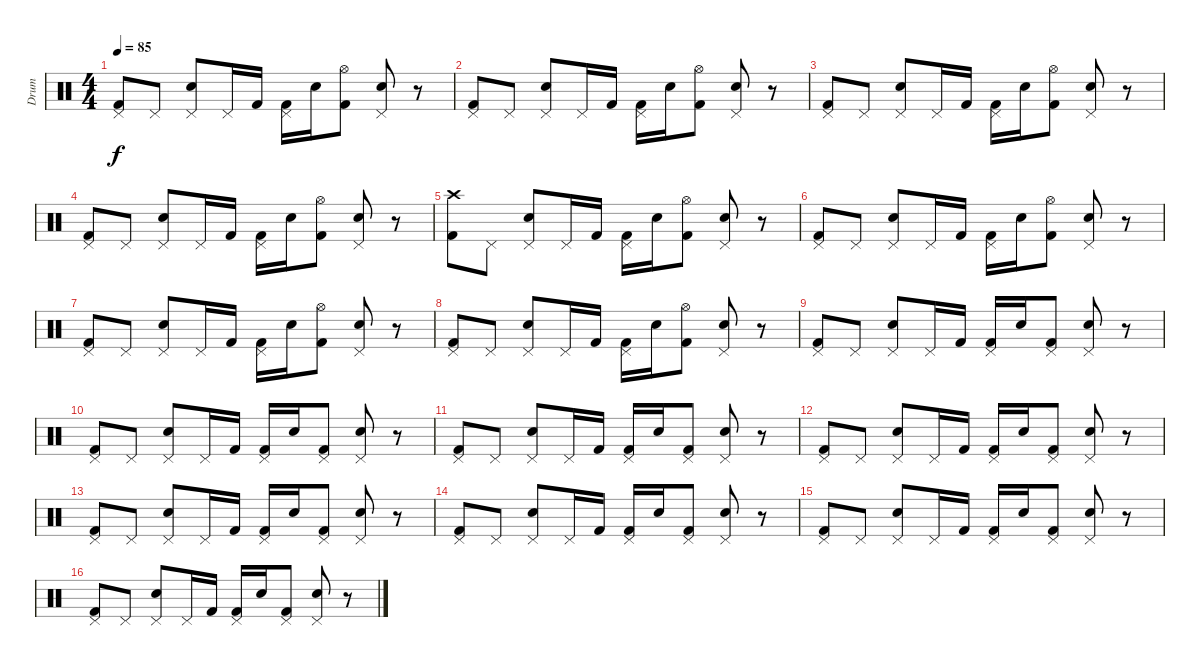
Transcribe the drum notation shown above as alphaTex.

\track ("Drum" "Drum") {instrument percussion}
\staff {score}
\articulation defaults
\ts (4 4)
\tempo 85
\clef neutral
\ks c
("Pedal Hi-Hat (hit)" "Kick (hit) 2").8{dy f} "Pedal Hi-Hat (hit)".8 ("Pedal Hi-Hat (hit)" "Electric Snare (hit)").8 "Pedal Hi-Hat (hit)".16 "Kick (hit) 2".16 ("Pedal Hi-Hat (hit)" "Kick (hit) 2").16 "Electric Snare (hit)".16 ("Hi-Hat (open)" "Kick (hit) 2").8 ("Pedal Hi-Hat (hit)" "Electric Snare (hit)").8 r.8 |
("Pedal Hi-Hat (hit)" "Kick (hit) 2").8 "Pedal Hi-Hat (hit)".8 ("Pedal Hi-Hat (hit)" "Electric Snare (hit)").8 "Pedal Hi-Hat (hit)".16 "Kick (hit) 2".16 ("Pedal Hi-Hat (hit)" "Kick (hit) 2").16 "Electric Snare (hit)".16 ("Hi-Hat (open)" "Kick (hit) 2").8 ("Pedal Hi-Hat (hit)" "Electric Snare (hit)").8 r.8 |
("Pedal Hi-Hat (hit)" "Kick (hit) 2").8 "Pedal Hi-Hat (hit)".8 ("Pedal Hi-Hat (hit)" "Electric Snare (hit)").8 "Pedal Hi-Hat (hit)".16 "Kick (hit) 2".16 ("Pedal Hi-Hat (hit)" "Kick (hit) 2").16 "Electric Snare (hit)".16 ("Hi-Hat (open)" "Kick (hit) 2").8 ("Pedal Hi-Hat (hit)" "Electric Snare (hit)").8 r.8 |
("Pedal Hi-Hat (hit)" "Kick (hit) 2").8 "Pedal Hi-Hat (hit)".8 ("Pedal Hi-Hat (hit)" "Electric Snare (hit)").8 "Pedal Hi-Hat (hit)".16 "Kick (hit) 2".16 ("Pedal Hi-Hat (hit)" "Kick (hit) 2").16 "Electric Snare (hit)".16 ("Hi-Hat (open)" "Kick (hit) 2").8 ("Pedal Hi-Hat (hit)" "Electric Snare (hit)").8 r.8 |
("Crash high (hit)" "Kick (hit) 2").8 "Pedal Hi-Hat (hit)".8 ("Pedal Hi-Hat (hit)" "Electric Snare (hit)").8 "Pedal Hi-Hat (hit)".16 "Kick (hit) 2".16 ("Pedal Hi-Hat (hit)" "Kick (hit) 2").16 "Electric Snare (hit)".16 ("Hi-Hat (open)" "Kick (hit) 2").8 ("Pedal Hi-Hat (hit)" "Electric Snare (hit)").8 r.8 |
("Pedal Hi-Hat (hit)" "Kick (hit) 2").8 "Pedal Hi-Hat (hit)".8 ("Pedal Hi-Hat (hit)" "Electric Snare (hit)").8 "Pedal Hi-Hat (hit)".16 "Kick (hit) 2".16 ("Pedal Hi-Hat (hit)" "Kick (hit) 2").16 "Electric Snare (hit)".16 ("Hi-Hat (open)" "Kick (hit) 2").8 ("Pedal Hi-Hat (hit)" "Electric Snare (hit)").8 r.8 |
("Pedal Hi-Hat (hit)" "Kick (hit) 2").8 "Pedal Hi-Hat (hit)".8 ("Pedal Hi-Hat (hit)" "Electric Snare (hit)").8 "Pedal Hi-Hat (hit)".16 "Kick (hit) 2".16 ("Pedal Hi-Hat (hit)" "Kick (hit) 2").16 "Electric Snare (hit)".16 ("Hi-Hat (open)" "Kick (hit) 2").8 ("Pedal Hi-Hat (hit)" "Electric Snare (hit)").8 r.8 |
("Pedal Hi-Hat (hit)" "Kick (hit) 2").8 "Pedal Hi-Hat (hit)".8 ("Pedal Hi-Hat (hit)" "Electric Snare (hit)").8 "Pedal Hi-Hat (hit)".16 "Kick (hit) 2".16 ("Pedal Hi-Hat (hit)" "Kick (hit) 2").16 "Electric Snare (hit)".16 ("Hi-Hat (open)" "Kick (hit) 2").8 ("Pedal Hi-Hat (hit)" "Electric Snare (hit)").8 r.8 |
("Pedal Hi-Hat (hit)" "Kick (hit) 2").8 "Pedal Hi-Hat (hit)".8 ("Pedal Hi-Hat (hit)" "Electric Snare (hit)").8 "Pedal Hi-Hat (hit)".16 "Kick (hit) 2".16 ("Pedal Hi-Hat (hit)" "Kick (hit) 2").16 "Electric Snare (hit)".16 ("Pedal Hi-Hat (hit)" "Kick (hit) 2").8 ("Pedal Hi-Hat (hit)" "Electric Snare (hit)").8 r.8 |
("Pedal Hi-Hat (hit)" "Kick (hit) 2").8 "Pedal Hi-Hat (hit)".8 ("Pedal Hi-Hat (hit)" "Electric Snare (hit)").8 "Pedal Hi-Hat (hit)".16 "Kick (hit) 2".16 ("Pedal Hi-Hat (hit)" "Kick (hit) 2").16 "Electric Snare (hit)".16 ("Pedal Hi-Hat (hit)" "Kick (hit) 2").8 ("Pedal Hi-Hat (hit)" "Electric Snare (hit)").8 r.8 |
("Pedal Hi-Hat (hit)" "Kick (hit) 2").8 "Pedal Hi-Hat (hit)".8 ("Pedal Hi-Hat (hit)" "Electric Snare (hit)").8 "Pedal Hi-Hat (hit)".16 "Kick (hit) 2".16 ("Pedal Hi-Hat (hit)" "Kick (hit) 2").16 "Electric Snare (hit)".16 ("Pedal Hi-Hat (hit)" "Kick (hit) 2").8 ("Pedal Hi-Hat (hit)" "Electric Snare (hit)").8 r.8 |
("Pedal Hi-Hat (hit)" "Kick (hit) 2").8 "Pedal Hi-Hat (hit)".8 ("Pedal Hi-Hat (hit)" "Electric Snare (hit)").8 "Pedal Hi-Hat (hit)".16 "Kick (hit) 2".16 ("Pedal Hi-Hat (hit)" "Kick (hit) 2").16 "Electric Snare (hit)".16 ("Pedal Hi-Hat (hit)" "Kick (hit) 2").8 ("Pedal Hi-Hat (hit)" "Electric Snare (hit)").8 r.8 |
("Pedal Hi-Hat (hit)" "Kick (hit) 2").8 "Pedal Hi-Hat (hit)".8 ("Pedal Hi-Hat (hit)" "Electric Snare (hit)").8 "Pedal Hi-Hat (hit)".16 "Kick (hit) 2".16 ("Pedal Hi-Hat (hit)" "Kick (hit) 2").16 "Electric Snare (hit)".16 ("Pedal Hi-Hat (hit)" "Kick (hit) 2").8 ("Pedal Hi-Hat (hit)" "Electric Snare (hit)").8 r.8 |
("Pedal Hi-Hat (hit)" "Kick (hit) 2").8 "Pedal Hi-Hat (hit)".8 ("Pedal Hi-Hat (hit)" "Electric Snare (hit)").8 "Pedal Hi-Hat (hit)".16 "Kick (hit) 2".16 ("Pedal Hi-Hat (hit)" "Kick (hit) 2").16 "Electric Snare (hit)".16 ("Pedal Hi-Hat (hit)" "Kick (hit) 2").8 ("Pedal Hi-Hat (hit)" "Electric Snare (hit)").8 r.8 |
("Pedal Hi-Hat (hit)" "Kick (hit) 2").8 "Pedal Hi-Hat (hit)".8 ("Pedal Hi-Hat (hit)" "Electric Snare (hit)").8 "Pedal Hi-Hat (hit)".16 "Kick (hit) 2".16 ("Pedal Hi-Hat (hit)" "Kick (hit) 2").16 "Electric Snare (hit)".16 ("Pedal Hi-Hat (hit)" "Kick (hit) 2").8 ("Pedal Hi-Hat (hit)" "Electric Snare (hit)").8 r.8 |
("Pedal Hi-Hat (hit)" "Kick (hit) 2").8 "Pedal Hi-Hat (hit)".8 ("Pedal Hi-Hat (hit)" "Electric Snare (hit)").8 "Pedal Hi-Hat (hit)".16 "Kick (hit) 2".16 ("Pedal Hi-Hat (hit)" "Kick (hit) 2").16 "Electric Snare (hit)".16 ("Pedal Hi-Hat (hit)" "Kick (hit) 2").8 ("Pedal Hi-Hat (hit)" "Electric Snare (hit)").8 r.8
